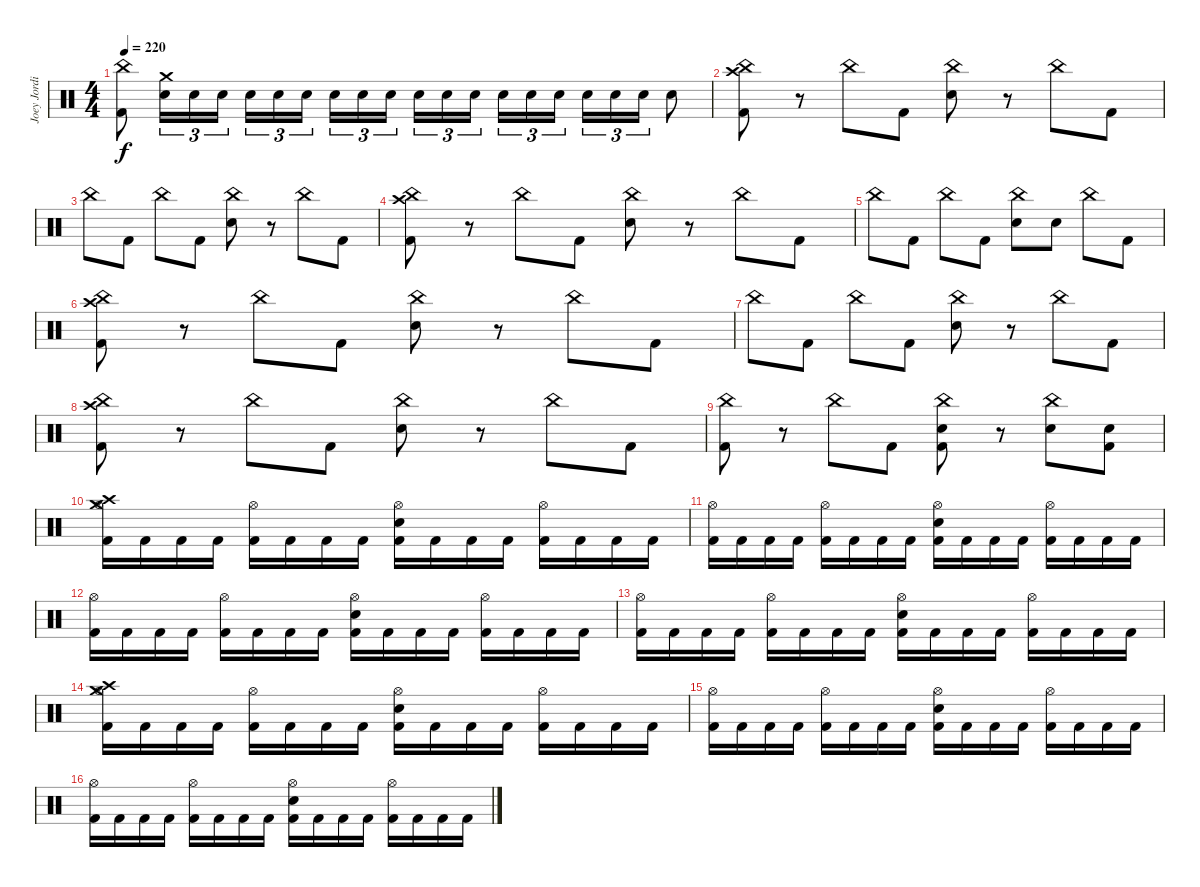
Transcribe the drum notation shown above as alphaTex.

\track ("Joey Jordison" "Joey Jordi") {instrument percussion}
\staff {score}
\articulation defaults
\ts (4 4)
\tempo 220
\clef neutral
\ks c
("China (hit)" "Kick (hit) 2").8{dy f} ("Crash medium (hit)" "Electric Snare (hit)").16{tu (3 2)} "Electric Snare (hit)".16{tu (3 2)} "Electric Snare (hit)".16{tu (3 2)} "Electric Snare (hit)".16{tu (3 2)} "Electric Snare (hit)".16{tu (3 2)} "Electric Snare (hit)".16{tu (3 2)} "Electric Snare (hit)".16{tu (3 2)} "Electric Snare (hit)".16{tu (3 2)} "Electric Snare (hit)".16{tu (3 2)} "Electric Snare (hit)".16{tu (3 2)} "Electric Snare (hit)".16{tu (3 2)} "Electric Snare (hit)".16{tu (3 2)} "Electric Snare (hit)".16{tu (3 2)} "Electric Snare (hit)".16{tu (3 2)} "Electric Snare (hit)".16{tu (3 2)} "Electric Snare (hit)".16{tu (3 2)} "Electric Snare (hit)".16{tu (3 2)} "Electric Snare (hit)".16{tu (3 2)} "Electric Snare (hit)".8 |
("Crash high (hit)" "China (hit)" "Kick (hit) 2").8 r.8 "China (hit)".8 "Kick (hit) 2".8 ("China (hit)" "Electric Snare (hit)").8 r.8 "China (hit)".8 "Kick (hit) 2".8 |
"China (hit)".8 "Kick (hit) 2".8 "China (hit)".8 "Kick (hit) 2".8 ("China (hit)" "Electric Snare (hit)").8 r.8 "China (hit)".8 "Kick (hit) 2".8 |
("Crash high (hit)" "China (hit)" "Kick (hit) 2").8 r.8 "China (hit)".8 "Kick (hit) 2".8 ("China (hit)" "Electric Snare (hit)").8 r.8 "China (hit)".8 "Kick (hit) 2".8 |
"China (hit)".8 "Kick (hit) 2".8 "China (hit)".8 "Kick (hit) 2".8 ("China (hit)" "Electric Snare (hit)").8 "Electric Snare (hit)".8 "China (hit)".8 "Kick (hit) 2".8 |
("Crash high (hit)" "China (hit)" "Kick (hit) 2").8 r.8 "China (hit)".8 "Kick (hit) 2".8 ("China (hit)" "Electric Snare (hit)").8 r.8 "China (hit)".8 "Kick (hit) 2".8 |
"China (hit)".8 "Kick (hit) 2".8 "China (hit)".8 "Kick (hit) 2".8 ("China (hit)" "Electric Snare (hit)").8 r.8 "China (hit)".8 "Kick (hit) 2".8 |
("Crash high (hit)" "China (hit)" "Kick (hit) 2").8 r.8 "China (hit)".8 "Kick (hit) 2".8 ("China (hit)" "Electric Snare (hit)").8 r.8 "China (hit)".8 "Kick (hit) 2".8 |
("China (hit)" "Kick (hit) 2").8 r.8 "China (hit)".8 "Kick (hit) 2".8 ("China (hit)" "Electric Snare (hit)" "Kick (hit) 2").8 r.8 ("China (hit)" "Electric Snare (hit)").8 ("Electric Snare (hit)" "Kick (hit) 2").8 |
("Crash medium (hit)" "Crash high (hit)" "Hi-Hat (open)" "Kick (hit) 2").16 "Kick (hit) 2".16 "Kick (hit) 2".16 "Kick (hit) 2".16 ("Hi-Hat (open)" "Kick (hit) 2").16 "Kick (hit) 2".16 "Kick (hit) 2".16 "Kick (hit) 2".16 ("Hi-Hat (open)" "Electric Snare (hit)" "Kick (hit) 2").16 "Kick (hit) 2".16 "Kick (hit) 2".16 "Kick (hit) 2".16 ("Hi-Hat (open)" "Kick (hit) 2").16 "Kick (hit) 2".16 "Kick (hit) 2".16 "Kick (hit) 2".16 |
("Hi-Hat (open)" "Kick (hit) 2").16 "Kick (hit) 2".16 "Kick (hit) 2".16 "Kick (hit) 2".16 ("Hi-Hat (open)" "Kick (hit) 2").16 "Kick (hit) 2".16 "Kick (hit) 2".16 "Kick (hit) 2".16 ("Hi-Hat (open)" "Electric Snare (hit)" "Kick (hit) 2").16 "Kick (hit) 2".16 "Kick (hit) 2".16 "Kick (hit) 2".16 ("Hi-Hat (open)" "Kick (hit) 2").16 "Kick (hit) 2".16 "Kick (hit) 2".16 "Kick (hit) 2".16 |
("Hi-Hat (open)" "Kick (hit) 2").16 "Kick (hit) 2".16 "Kick (hit) 2".16 "Kick (hit) 2".16 ("Hi-Hat (open)" "Kick (hit) 2").16 "Kick (hit) 2".16 "Kick (hit) 2".16 "Kick (hit) 2".16 ("Hi-Hat (open)" "Electric Snare (hit)" "Kick (hit) 2").16 "Kick (hit) 2".16 "Kick (hit) 2".16 "Kick (hit) 2".16 ("Hi-Hat (open)" "Kick (hit) 2").16 "Kick (hit) 2".16 "Kick (hit) 2".16 "Kick (hit) 2".16 |
("Hi-Hat (open)" "Kick (hit) 2").16 "Kick (hit) 2".16 "Kick (hit) 2".16 "Kick (hit) 2".16 ("Hi-Hat (open)" "Kick (hit) 2").16 "Kick (hit) 2".16 "Kick (hit) 2".16 "Kick (hit) 2".16 ("Hi-Hat (open)" "Electric Snare (hit)" "Kick (hit) 2").16 "Kick (hit) 2".16 "Kick (hit) 2".16 "Kick (hit) 2".16 ("Hi-Hat (open)" "Kick (hit) 2").16 "Kick (hit) 2".16 "Kick (hit) 2".16 "Kick (hit) 2".16 |
("Crash medium (hit)" "Crash high (hit)" "Hi-Hat (open)" "Kick (hit) 2").16 "Kick (hit) 2".16 "Kick (hit) 2".16 "Kick (hit) 2".16 ("Hi-Hat (open)" "Kick (hit) 2").16 "Kick (hit) 2".16 "Kick (hit) 2".16 "Kick (hit) 2".16 ("Hi-Hat (open)" "Electric Snare (hit)" "Kick (hit) 2").16 "Kick (hit) 2".16 "Kick (hit) 2".16 "Kick (hit) 2".16 ("Hi-Hat (open)" "Kick (hit) 2").16 "Kick (hit) 2".16 "Kick (hit) 2".16 "Kick (hit) 2".16 |
("Hi-Hat (open)" "Kick (hit) 2").16 "Kick (hit) 2".16 "Kick (hit) 2".16 "Kick (hit) 2".16 ("Hi-Hat (open)" "Kick (hit) 2").16 "Kick (hit) 2".16 "Kick (hit) 2".16 "Kick (hit) 2".16 ("Hi-Hat (open)" "Electric Snare (hit)" "Kick (hit) 2").16 "Kick (hit) 2".16 "Kick (hit) 2".16 "Kick (hit) 2".16 ("Hi-Hat (open)" "Kick (hit) 2").16 "Kick (hit) 2".16 "Kick (hit) 2".16 "Kick (hit) 2".16 |
("Hi-Hat (open)" "Kick (hit) 2").16 "Kick (hit) 2".16 "Kick (hit) 2".16 "Kick (hit) 2".16 ("Hi-Hat (open)" "Kick (hit) 2").16 "Kick (hit) 2".16 "Kick (hit) 2".16 "Kick (hit) 2".16 ("Hi-Hat (open)" "Electric Snare (hit)" "Kick (hit) 2").16 "Kick (hit) 2".16 "Kick (hit) 2".16 "Kick (hit) 2".16 ("Hi-Hat (open)" "Kick (hit) 2").16 "Kick (hit) 2".16 "Kick (hit) 2".16 "Kick (hit) 2".16
